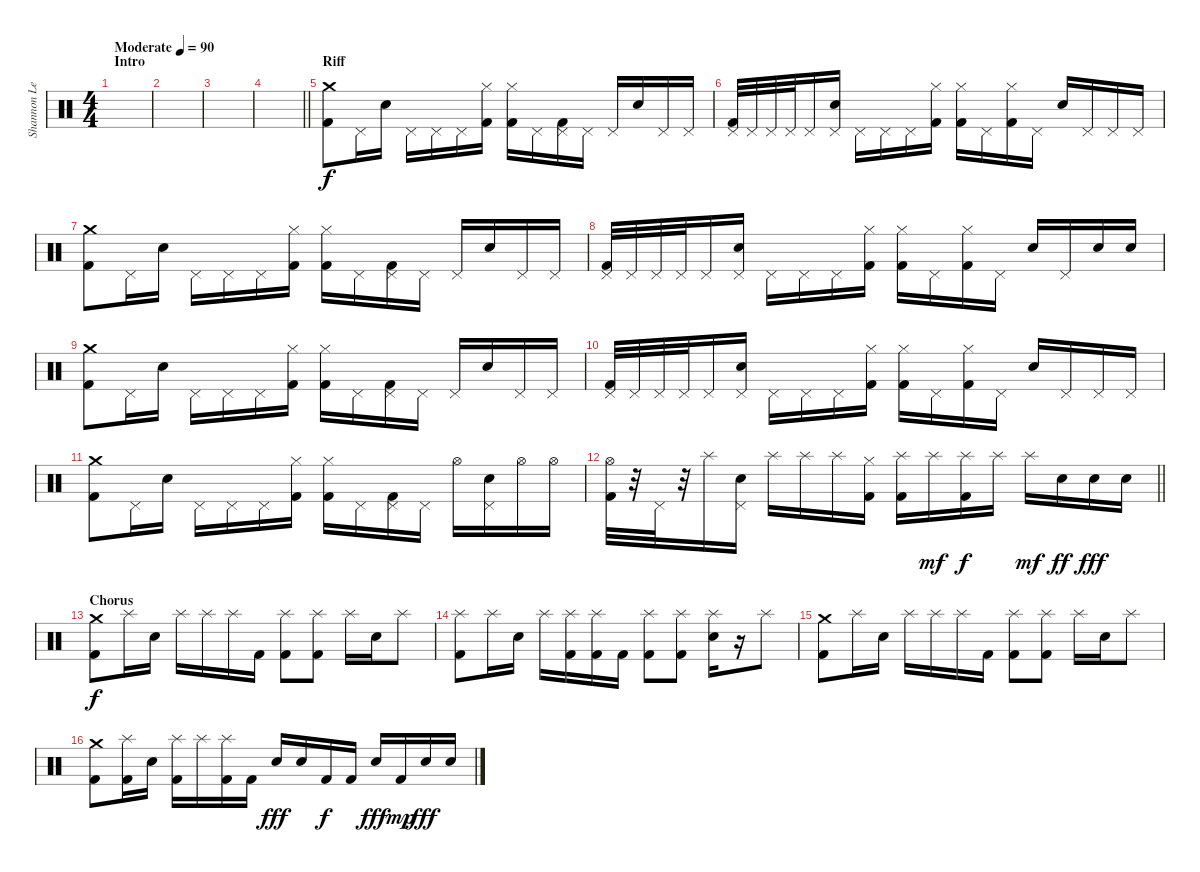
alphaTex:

\track ("Shannon Leto - Drums" "Shannon Le") {instrument percussion}
\staff {score}
\articulation defaults
\ts (4 4)
\section ("" "Intro")
\tempo (90 "Moderate")
\clef neutral
\ks c
|
|
|
\barLineRight lightlight
|
\section ("" "Riff")
("Crash medium (hit)" "Kick (hit) 2").8 "Pedal Hi-Hat (hit)".16 "Electric Snare (hit)".16 "Pedal Hi-Hat (hit)".16 "Pedal Hi-Hat (hit)".16 "Pedal Hi-Hat (hit)".16 ("Hi-Hat (closed)" "Kick (hit) 2").16 ("Hi-Hat (closed)" "Kick (hit) 2").16 "Pedal Hi-Hat (hit)".16 ("Pedal Hi-Hat (hit)" "Kick (hit) 2").16 "Pedal Hi-Hat (hit)".16 "Pedal Hi-Hat (hit)".16 "Electric Snare (hit)".16 "Pedal Hi-Hat (hit)".16 "Pedal Hi-Hat (hit)".16 |
("Pedal Hi-Hat (hit)" "Kick (hit) 2").32 "Pedal Hi-Hat (hit)".32 "Pedal Hi-Hat (hit)".32 "Pedal Hi-Hat (hit)".32 "Pedal Hi-Hat (hit)".16 ("Pedal Hi-Hat (hit)" "Electric Snare (hit)").16 "Pedal Hi-Hat (hit)".16 "Pedal Hi-Hat (hit)".16 "Pedal Hi-Hat (hit)".16 ("Hi-Hat (closed)" "Kick (hit) 2").16 ("Hi-Hat (closed)" "Kick (hit) 2").16 "Pedal Hi-Hat (hit)".16 ("Hi-Hat (closed)" "Kick (hit) 2").16 "Pedal Hi-Hat (hit)".16 "Electric Snare (hit)".16 "Pedal Hi-Hat (hit)".16 "Pedal Hi-Hat (hit)".16 "Pedal Hi-Hat (hit)".16 |
("Crash medium (hit)" "Kick (hit) 2").8 "Pedal Hi-Hat (hit)".16 "Electric Snare (hit)".16 "Pedal Hi-Hat (hit)".16 "Pedal Hi-Hat (hit)".16 "Pedal Hi-Hat (hit)".16 ("Hi-Hat (closed)" "Kick (hit) 2").16 ("Hi-Hat (closed)" "Kick (hit) 2").16 "Pedal Hi-Hat (hit)".16 ("Pedal Hi-Hat (hit)" "Kick (hit) 2").16 "Pedal Hi-Hat (hit)".16 "Pedal Hi-Hat (hit)".16 "Electric Snare (hit)".16 "Pedal Hi-Hat (hit)".16 "Pedal Hi-Hat (hit)".16 |
("Pedal Hi-Hat (hit)" "Kick (hit) 2").32 "Pedal Hi-Hat (hit)".32 "Pedal Hi-Hat (hit)".32 "Pedal Hi-Hat (hit)".32 "Pedal Hi-Hat (hit)".16 ("Pedal Hi-Hat (hit)" "Electric Snare (hit)").16 "Pedal Hi-Hat (hit)".16 "Pedal Hi-Hat (hit)".16 "Pedal Hi-Hat (hit)".16 ("Hi-Hat (closed)" "Kick (hit) 2").16 ("Hi-Hat (closed)" "Kick (hit) 2").16 "Pedal Hi-Hat (hit)".16 ("Hi-Hat (closed)" "Kick (hit) 2").16 "Pedal Hi-Hat (hit)".16 "Electric Snare (hit)".16 "Pedal Hi-Hat (hit)".16 "Electric Snare (hit)".16 "Electric Snare (hit)".16 |
("Crash medium (hit)" "Kick (hit) 2").8 "Pedal Hi-Hat (hit)".16 "Electric Snare (hit)".16 "Pedal Hi-Hat (hit)".16 "Pedal Hi-Hat (hit)".16 "Pedal Hi-Hat (hit)".16 ("Hi-Hat (closed)" "Kick (hit) 2").16 ("Hi-Hat (closed)" "Kick (hit) 2").16 "Pedal Hi-Hat (hit)".16 ("Pedal Hi-Hat (hit)" "Kick (hit) 2").16 "Pedal Hi-Hat (hit)".16 "Pedal Hi-Hat (hit)".16 "Electric Snare (hit)".16 "Pedal Hi-Hat (hit)".16 "Pedal Hi-Hat (hit)".16 |
("Pedal Hi-Hat (hit)" "Kick (hit) 2").32 "Pedal Hi-Hat (hit)".32 "Pedal Hi-Hat (hit)".32 "Pedal Hi-Hat (hit)".32 "Pedal Hi-Hat (hit)".16 ("Pedal Hi-Hat (hit)" "Electric Snare (hit)").16 "Pedal Hi-Hat (hit)".16 "Pedal Hi-Hat (hit)".16 "Pedal Hi-Hat (hit)".16 ("Hi-Hat (closed)" "Kick (hit) 2").16 ("Hi-Hat (closed)" "Kick (hit) 2").16 "Pedal Hi-Hat (hit)".16 ("Hi-Hat (closed)" "Kick (hit) 2").16 "Pedal Hi-Hat (hit)".16 "Electric Snare (hit)".16 "Pedal Hi-Hat (hit)".16 "Pedal Hi-Hat (hit)".16 "Pedal Hi-Hat (hit)".16 |
("Crash medium (hit)" "Kick (hit) 2").8 "Pedal Hi-Hat (hit)".16 "Electric Snare (hit)".16 "Pedal Hi-Hat (hit)".16 "Pedal Hi-Hat (hit)".16 "Pedal Hi-Hat (hit)".16 ("Hi-Hat (closed)" "Kick (hit) 2").16 ("Hi-Hat (closed)" "Kick (hit) 2").16 "Pedal Hi-Hat (hit)".16 ("Pedal Hi-Hat (hit)" "Kick (hit) 2").16 "Pedal Hi-Hat (hit)".16 "Hi-Hat (open)".16 ("Pedal Hi-Hat (hit)" "Electric Snare (hit)").16 "Hi-Hat (open)".16 "Hi-Hat (open)".16 |
\barLineRight lightlight
("Hi-Hat (open)" "Kick (hit) 2").32 r.32 "Pedal Hi-Hat (hit)".32 r.32 "Splash (hit)".16 ("Pedal Hi-Hat (hit)" "Electric Snare (hit)").16 "Splash (hit)".16 "Splash (hit)".16 "Splash (hit)".16 ("Hi-Hat (closed)" "Kick (hit) 2").16 ("Splash (hit)" "Kick (hit) 2").16 "Splash (hit)".16{dy mf} ("Splash (hit)" "Kick (hit) 2").16{dy f} "Splash (hit)".16 "Splash (hit)".16{dy mf} "Electric Snare (hit)".16{dy ff} "Electric Snare (hit)".16{dy fff} "Electric Snare (hit)".16 |
\section ("" "Chorus")
("Crash medium (hit)" "Kick (hit) 2").8{dy f} "Splash (hit)".16 "Electric Snare (hit)".16 "Splash (hit)".16 "Splash (hit)".16 "Splash (hit)".16 "Kick (hit) 2".16 ("Splash (hit)" "Kick (hit) 2").8 ("Splash (hit)" "Kick (hit) 2").8 "Splash (hit)".16 "Electric Snare (hit)".16 "Splash (hit)".8 |
("Splash (hit)" "Kick (hit) 2").8 "Splash (hit)".16 "Electric Snare (hit)".16 "Splash (hit)".16 ("Splash (hit)" "Kick (hit) 2").16 ("Splash (hit)" "Kick (hit) 2").16 "Kick (hit) 2".16 ("Splash (hit)" "Kick (hit) 2").8 ("Splash (hit)" "Kick (hit) 2").8 ("Splash (hit)" "Electric Snare (hit)").16 r.16 "Splash (hit)".8 |
("Crash medium (hit)" "Kick (hit) 2").8 "Splash (hit)".16 "Electric Snare (hit)".16 "Splash (hit)".16 "Splash (hit)".16 "Splash (hit)".16 "Kick (hit) 2".16 ("Splash (hit)" "Kick (hit) 2").8 ("Splash (hit)" "Kick (hit) 2").8 "Splash (hit)".16 "Electric Snare (hit)".16 "Splash (hit)".8 |
("Crash medium (hit)" "Kick (hit) 2").8 ("Splash (hit)" "Kick (hit) 2").16 "Electric Snare (hit)".16 ("Splash (hit)" "Kick (hit) 2").16 "Splash (hit)".16 ("Splash (hit)" "Kick (hit) 2").16 "Kick (hit) 2".16 "Electric Snare (hit)".16{dy fff} "Electric Snare (hit)".16 "Kick (hit) 2".16{dy f} "Kick (hit) 2".16 "Electric Snare (hit)".16{dy fff} "Kick (hit) 2".16{dy mp} "Electric Snare (hit)".16{dy fff} "Electric Snare (hit)".16
